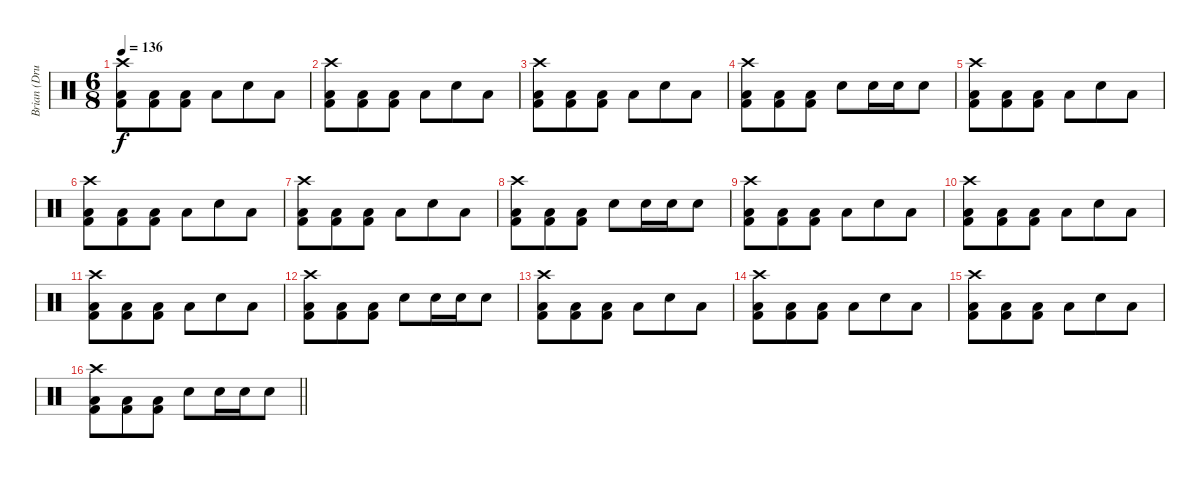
\track ("Brian (Drums)" "Brian (Dru") {instrument percussion}
\staff {score}
\articulation defaults
\ts (6 8)
\tempo 136
\clef neutral
\ks c
("Crash high (hit)" "Low Tom (hit)" "Kick (hit) 2").8{dy f} ("Low Tom (hit)" "Kick (hit) 2").8 ("Low Tom (hit)" "Kick (hit) 2").8 "Low Tom (hit)".8 "Electric Snare (hit)".8 "Low Tom (hit)".8 |
("Crash high (hit)" "Low Tom (hit)" "Kick (hit) 2").8 ("Low Tom (hit)" "Kick (hit) 2").8 ("Low Tom (hit)" "Kick (hit) 2").8 "Low Tom (hit)".8 "Electric Snare (hit)".8 "Low Tom (hit)".8 |
("Crash high (hit)" "Low Tom (hit)" "Kick (hit) 2").8 ("Low Tom (hit)" "Kick (hit) 2").8 ("Low Tom (hit)" "Kick (hit) 2").8 "Low Tom (hit)".8 "Electric Snare (hit)".8 "Low Tom (hit)".8 |
("Crash high (hit)" "Low Tom (hit)" "Kick (hit) 2").8 ("Low Tom (hit)" "Kick (hit) 2").8 ("Low Tom (hit)" "Kick (hit) 2").8 "Electric Snare (hit)".8 "Electric Snare (hit)".16 "Electric Snare (hit)".16 "Electric Snare (hit)".8 |
("Crash high (hit)" "Low Tom (hit)" "Kick (hit) 2").8 ("Low Tom (hit)" "Kick (hit) 2").8 ("Low Tom (hit)" "Kick (hit) 2").8 "Low Tom (hit)".8 "Electric Snare (hit)".8 "Low Tom (hit)".8 |
("Crash high (hit)" "Low Tom (hit)" "Kick (hit) 2").8 ("Low Tom (hit)" "Kick (hit) 2").8 ("Low Tom (hit)" "Kick (hit) 2").8 "Low Tom (hit)".8 "Electric Snare (hit)".8 "Low Tom (hit)".8 |
("Crash high (hit)" "Low Tom (hit)" "Kick (hit) 2").8 ("Low Tom (hit)" "Kick (hit) 2").8 ("Low Tom (hit)" "Kick (hit) 2").8 "Low Tom (hit)".8 "Electric Snare (hit)".8 "Low Tom (hit)".8 |
("Crash high (hit)" "Low Tom (hit)" "Kick (hit) 2").8 ("Low Tom (hit)" "Kick (hit) 2").8 ("Low Tom (hit)" "Kick (hit) 2").8 "Electric Snare (hit)".8 "Electric Snare (hit)".16 "Electric Snare (hit)".16 "Electric Snare (hit)".8 |
("Crash high (hit)" "Low Tom (hit)" "Kick (hit) 2").8 ("Low Tom (hit)" "Kick (hit) 2").8 ("Low Tom (hit)" "Kick (hit) 2").8 "Low Tom (hit)".8 "Electric Snare (hit)".8 "Low Tom (hit)".8 |
("Crash high (hit)" "Low Tom (hit)" "Kick (hit) 2").8 ("Low Tom (hit)" "Kick (hit) 2").8 ("Low Tom (hit)" "Kick (hit) 2").8 "Low Tom (hit)".8 "Electric Snare (hit)".8 "Low Tom (hit)".8 |
("Crash high (hit)" "Low Tom (hit)" "Kick (hit) 2").8 ("Low Tom (hit)" "Kick (hit) 2").8 ("Low Tom (hit)" "Kick (hit) 2").8 "Low Tom (hit)".8 "Electric Snare (hit)".8 "Low Tom (hit)".8 |
("Crash high (hit)" "Low Tom (hit)" "Kick (hit) 2").8 ("Low Tom (hit)" "Kick (hit) 2").8 ("Low Tom (hit)" "Kick (hit) 2").8 "Electric Snare (hit)".8 "Electric Snare (hit)".16 "Electric Snare (hit)".16 "Electric Snare (hit)".8 |
("Crash high (hit)" "Low Tom (hit)" "Kick (hit) 2").8 ("Low Tom (hit)" "Kick (hit) 2").8 ("Low Tom (hit)" "Kick (hit) 2").8 "Low Tom (hit)".8 "Electric Snare (hit)".8 "Low Tom (hit)".8 |
("Crash high (hit)" "Low Tom (hit)" "Kick (hit) 2").8 ("Low Tom (hit)" "Kick (hit) 2").8 ("Low Tom (hit)" "Kick (hit) 2").8 "Low Tom (hit)".8 "Electric Snare (hit)".8 "Low Tom (hit)".8 |
("Crash high (hit)" "Low Tom (hit)" "Kick (hit) 2").8 ("Low Tom (hit)" "Kick (hit) 2").8 ("Low Tom (hit)" "Kick (hit) 2").8 "Low Tom (hit)".8 "Electric Snare (hit)".8 "Low Tom (hit)".8 |
\barLineRight lightlight
("Crash high (hit)" "Low Tom (hit)" "Kick (hit) 2").8 ("Low Tom (hit)" "Kick (hit) 2").8 ("Low Tom (hit)" "Kick (hit) 2").8 "Electric Snare (hit)".8 "Electric Snare (hit)".16 "Electric Snare (hit)".16 "Electric Snare (hit)".8
